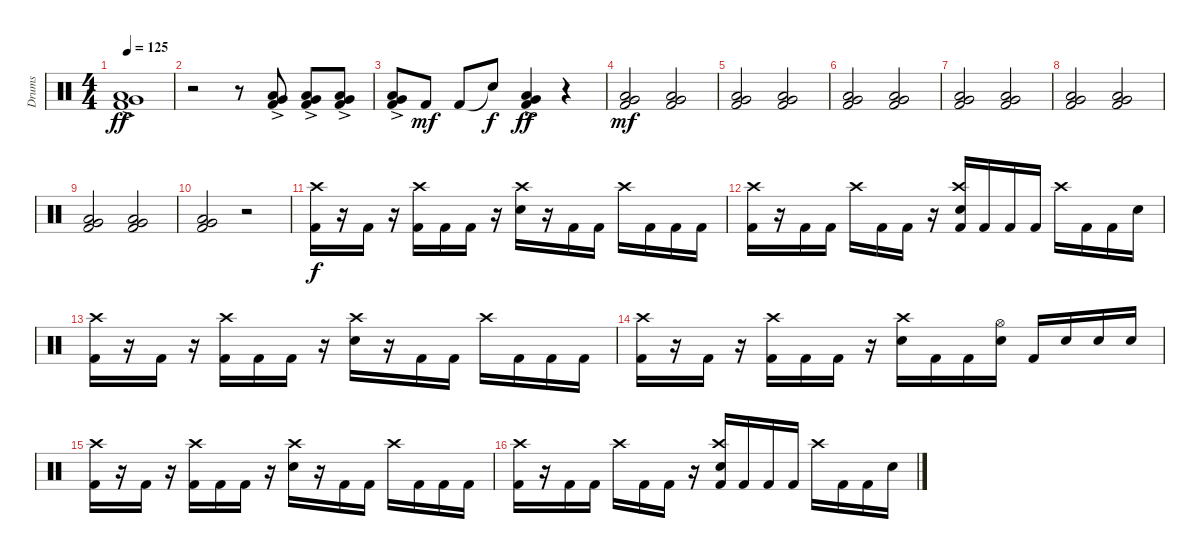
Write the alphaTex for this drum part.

\track ("Drums" "Drums") {instrument percussion}
\staff {score}
\articulation defaults
\ts (4 4)
\tempo 125
\clef neutral
\ks c
("Low Floor Tom (hit)"{ac} "Very Low Tom (hit)"{ac} "Kick (hit) 2"{ac}).1{dy ff} |
r.2 r.8 ("Low Floor Tom (hit)"{ac} "Very Low Tom (hit)"{ac} "Kick (hit) 2"{ac}).8 ("Low Floor Tom (hit)"{ac} "Very Low Tom (hit)"{ac} "Kick (hit) 2"{ac}).8 ("Low Floor Tom (hit)"{ac} "Very Low Tom (hit)"{ac} "Kick (hit) 2"{ac}).8 |
("Low Floor Tom (hit)"{ac} "Very Low Tom (hit)"{ac} "Kick (hit) 2"{ac}).8 "Kick (hit) 2".8{dy mf} "Kick (hit) 2".8 "Snare (hit)"{t}.8{dy f} ("Low Floor Tom (hit)"{ac} "Very Low Tom (hit)"{ac} "Kick (hit) 2"{ac}).4{dy ff} r.4 |
("Low Floor Tom (hit)" "Very Low Tom (hit)" "Kick (hit) 2").2{dy mf} ("Low Floor Tom (hit)" "Very Low Tom (hit)" "Kick (hit) 2").2 |
("Low Floor Tom (hit)" "Very Low Tom (hit)" "Kick (hit) 2").2 ("Low Floor Tom (hit)" "Very Low Tom (hit)" "Kick (hit) 2").2 |
("Low Floor Tom (hit)" "Very Low Tom (hit)" "Kick (hit) 2").2 ("Low Floor Tom (hit)" "Very Low Tom (hit)" "Kick (hit) 2").2 |
("Low Floor Tom (hit)" "Very Low Tom (hit)" "Kick (hit) 2").2 ("Low Floor Tom (hit)" "Very Low Tom (hit)" "Kick (hit) 2").2 |
("Low Floor Tom (hit)" "Very Low Tom (hit)" "Kick (hit) 2").2 ("Low Floor Tom (hit)" "Very Low Tom (hit)" "Kick (hit) 2").2 |
("Low Floor Tom (hit)" "Very Low Tom (hit)" "Kick (hit) 2").2 ("Low Floor Tom (hit)" "Very Low Tom (hit)" "Kick (hit) 2").2 |
("Low Floor Tom (hit)" "Very Low Tom (hit)" "Kick (hit) 2").2 r.2 |
("Crash high (hit)" "Kick (hit) 2").16{dy f} r.16 "Kick (hit) 2".16 r.16 ("Crash high (hit)" "Kick (hit) 2").16 "Kick (hit) 2".16 "Kick (hit) 2".16 r.16 ("Crash high (hit)" "Electric Snare (hit)").16 r.16 "Kick (hit) 2".16 "Kick (hit) 2".16 "Crash high (hit)".16 "Kick (hit) 2".16 "Kick (hit) 2".16 "Kick (hit) 2".16 |
("Crash high (hit)" "Kick (hit) 2").16 r.16 "Kick (hit) 2".16 "Kick (hit) 2".16 "Crash high (hit)".16 "Kick (hit) 2".16 "Kick (hit) 2".16 r.16 ("Crash high (hit)" "Electric Snare (hit)" "Kick (hit) 2").16 "Kick (hit) 2".16 "Kick (hit) 2".16 "Kick (hit) 2".16 "Crash high (hit)".16 "Kick (hit) 2".16 "Kick (hit) 2".16 "Electric Snare (hit)".16 |
("Crash high (hit)" "Kick (hit) 2").16 r.16 "Kick (hit) 2".16 r.16 ("Crash high (hit)" "Kick (hit) 2").16 "Kick (hit) 2".16 "Kick (hit) 2".16 r.16 ("Crash high (hit)" "Electric Snare (hit)").16 r.16 "Kick (hit) 2".16 "Kick (hit) 2".16 "Crash high (hit)".16 "Kick (hit) 2".16 "Kick (hit) 2".16 "Kick (hit) 2".16 |
("Crash high (hit)" "Kick (hit) 2").16 r.16 "Kick (hit) 2".16 r.16 ("Crash high (hit)" "Kick (hit) 2").16 "Kick (hit) 2".16 "Kick (hit) 2".16 r.16 ("Crash high (hit)" "Electric Snare (hit)").16 "Kick (hit) 2".16 "Kick (hit) 2".16 ("Hi-Hat (open)" "Electric Snare (hit)").16 "Kick (hit) 2".16 "Electric Snare (hit)".16 "Electric Snare (hit)".16 "Electric Snare (hit)".16 |
("Crash high (hit)" "Kick (hit) 2").16 r.16 "Kick (hit) 2".16 r.16 ("Crash high (hit)" "Kick (hit) 2").16 "Kick (hit) 2".16 "Kick (hit) 2".16 r.16 ("Crash high (hit)" "Electric Snare (hit)").16 r.16 "Kick (hit) 2".16 "Kick (hit) 2".16 "Crash high (hit)".16 "Kick (hit) 2".16 "Kick (hit) 2".16 "Kick (hit) 2".16 |
("Crash high (hit)" "Kick (hit) 2").16 r.16 "Kick (hit) 2".16 "Kick (hit) 2".16 "Crash high (hit)".16 "Kick (hit) 2".16 "Kick (hit) 2".16 r.16 ("Crash high (hit)" "Electric Snare (hit)" "Kick (hit) 2").16 "Kick (hit) 2".16 "Kick (hit) 2".16 "Kick (hit) 2".16 "Crash high (hit)".16 "Kick (hit) 2".16 "Kick (hit) 2".16 "Electric Snare (hit)".16
